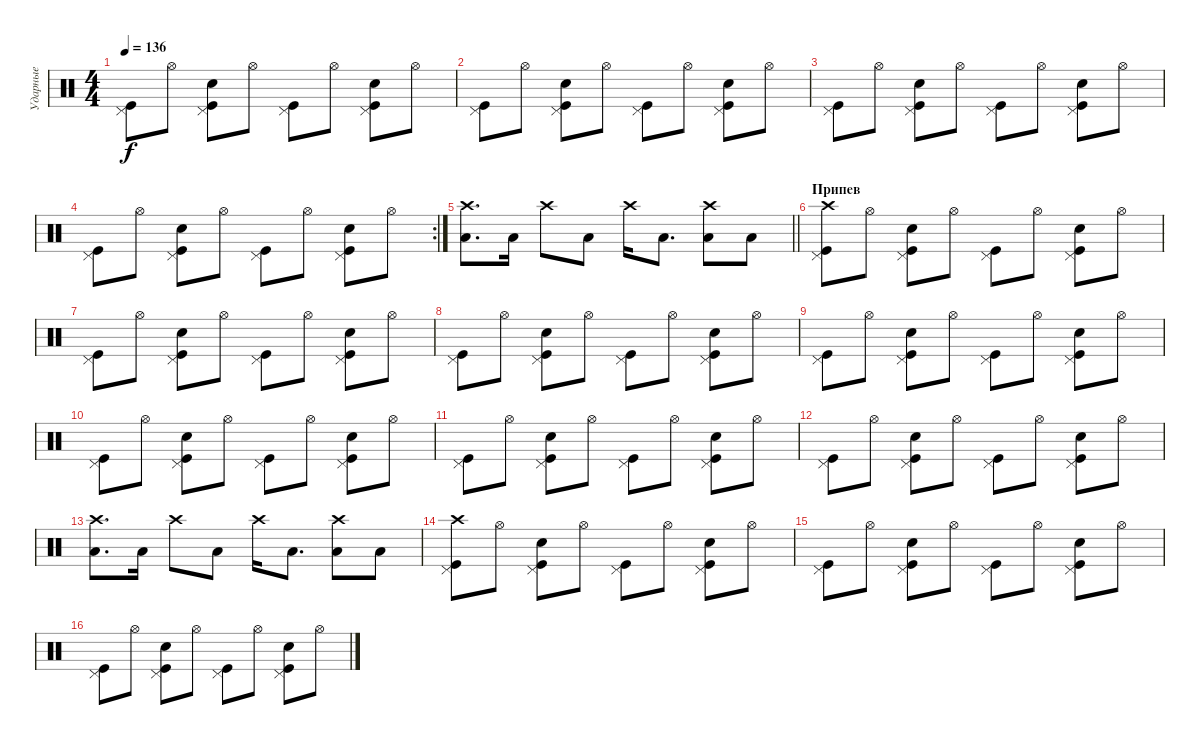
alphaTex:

\track ("Ударные" "Ударные") {instrument percussion}
\staff {score}
\articulation defaults
\ts (4 4)
\tempo 136
\clef neutral
\ks c
("Kick (hit)" "Pedal Hi-Hat (hit)").8{dy f} "Hi-Hat (open)".8 ("Kick (hit)" "Hand Clap (hit)" "Pedal Hi-Hat (hit)").8 "Hi-Hat (open)".8 ("Kick (hit)" "Pedal Hi-Hat (hit)").8 "Hi-Hat (open)".8 ("Kick (hit)" "Hand Clap (hit)" "Pedal Hi-Hat (hit)").8 "Hi-Hat (open)".8 |
("Kick (hit)" "Pedal Hi-Hat (hit)").8 "Hi-Hat (open)".8 ("Kick (hit)" "Hand Clap (hit)" "Pedal Hi-Hat (hit)").8 "Hi-Hat (open)".8 ("Kick (hit)" "Pedal Hi-Hat (hit)").8 "Hi-Hat (open)".8 ("Kick (hit)" "Hand Clap (hit)" "Pedal Hi-Hat (hit)").8 "Hi-Hat (open)".8 |
("Kick (hit)" "Pedal Hi-Hat (hit)").8 "Hi-Hat (open)".8 ("Kick (hit)" "Hand Clap (hit)" "Pedal Hi-Hat (hit)").8 "Hi-Hat (open)".8 ("Kick (hit)" "Pedal Hi-Hat (hit)").8 "Hi-Hat (open)".8 ("Kick (hit)" "Hand Clap (hit)" "Pedal Hi-Hat (hit)").8 "Hi-Hat (open)".8 |
\rc 2
("Kick (hit)" "Pedal Hi-Hat (hit)").8 "Hi-Hat (open)".8 ("Kick (hit)" "Hand Clap (hit)" "Pedal Hi-Hat (hit)").8 "Hi-Hat (open)".8 ("Kick (hit)" "Pedal Hi-Hat (hit)").8 "Hi-Hat (open)".8 ("Kick (hit)" "Hand Clap (hit)" "Pedal Hi-Hat (hit)").8 "Hi-Hat (open)".8 |
\barLineRight lightlight
("Low Tom (hit)" "Crash high (hit)").8{d} "Low Tom (hit)".16 "Crash high (hit)".8 "Low Tom (hit)".8 "Crash high (hit)".16 "Low Tom (hit)".8{d} ("Low Tom (hit)" "Crash high (hit)").8 "Low Tom (hit)".8 |
\section ("" "Припев")
("Kick (hit)" "Crash high (hit)" "Pedal Hi-Hat (hit)").8 "Hi-Hat (open)".8 ("Kick (hit)" "Hand Clap (hit)" "Pedal Hi-Hat (hit)").8 "Hi-Hat (open)".8 ("Kick (hit)" "Pedal Hi-Hat (hit)").8 "Hi-Hat (open)".8 ("Kick (hit)" "Hand Clap (hit)" "Pedal Hi-Hat (hit)").8 "Hi-Hat (open)".8 |
("Kick (hit)" "Pedal Hi-Hat (hit)").8 "Hi-Hat (open)".8 ("Kick (hit)" "Hand Clap (hit)" "Pedal Hi-Hat (hit)").8 "Hi-Hat (open)".8 ("Kick (hit)" "Pedal Hi-Hat (hit)").8 "Hi-Hat (open)".8 ("Kick (hit)" "Hand Clap (hit)" "Pedal Hi-Hat (hit)").8 "Hi-Hat (open)".8 |
("Kick (hit)" "Pedal Hi-Hat (hit)").8 "Hi-Hat (open)".8 ("Kick (hit)" "Hand Clap (hit)" "Pedal Hi-Hat (hit)").8 "Hi-Hat (open)".8 ("Kick (hit)" "Pedal Hi-Hat (hit)").8 "Hi-Hat (open)".8 ("Kick (hit)" "Hand Clap (hit)" "Pedal Hi-Hat (hit)").8 "Hi-Hat (open)".8 |
("Kick (hit)" "Pedal Hi-Hat (hit)").8 "Hi-Hat (open)".8 ("Kick (hit)" "Hand Clap (hit)" "Pedal Hi-Hat (hit)").8 "Hi-Hat (open)".8 ("Kick (hit)" "Pedal Hi-Hat (hit)").8 "Hi-Hat (open)".8 ("Kick (hit)" "Hand Clap (hit)" "Pedal Hi-Hat (hit)").8 "Hi-Hat (open)".8 |
("Kick (hit)" "Pedal Hi-Hat (hit)").8 "Hi-Hat (open)".8 ("Kick (hit)" "Hand Clap (hit)" "Pedal Hi-Hat (hit)").8 "Hi-Hat (open)".8 ("Kick (hit)" "Pedal Hi-Hat (hit)").8 "Hi-Hat (open)".8 ("Kick (hit)" "Hand Clap (hit)" "Pedal Hi-Hat (hit)").8 "Hi-Hat (open)".8 |
("Kick (hit)" "Pedal Hi-Hat (hit)").8 "Hi-Hat (open)".8 ("Kick (hit)" "Hand Clap (hit)" "Pedal Hi-Hat (hit)").8 "Hi-Hat (open)".8 ("Kick (hit)" "Pedal Hi-Hat (hit)").8 "Hi-Hat (open)".8 ("Kick (hit)" "Hand Clap (hit)" "Pedal Hi-Hat (hit)").8 "Hi-Hat (open)".8 |
("Kick (hit)" "Pedal Hi-Hat (hit)").8 "Hi-Hat (open)".8 ("Kick (hit)" "Hand Clap (hit)" "Pedal Hi-Hat (hit)").8 "Hi-Hat (open)".8 ("Kick (hit)" "Pedal Hi-Hat (hit)").8 "Hi-Hat (open)".8 ("Kick (hit)" "Hand Clap (hit)" "Pedal Hi-Hat (hit)").8 "Hi-Hat (open)".8 |
("Low Tom (hit)" "Crash high (hit)").8{d} "Low Tom (hit)".16 "Crash high (hit)".8 "Low Tom (hit)".8 "Crash high (hit)".16 "Low Tom (hit)".8{d} ("Low Tom (hit)" "Crash high (hit)").8 "Low Tom (hit)".8 |
("Kick (hit)" "Crash high (hit)" "Pedal Hi-Hat (hit)").8 "Hi-Hat (open)".8 ("Kick (hit)" "Hand Clap (hit)" "Pedal Hi-Hat (hit)").8 "Hi-Hat (open)".8 ("Kick (hit)" "Pedal Hi-Hat (hit)").8 "Hi-Hat (open)".8 ("Kick (hit)" "Hand Clap (hit)" "Pedal Hi-Hat (hit)").8 "Hi-Hat (open)".8 |
("Kick (hit)" "Pedal Hi-Hat (hit)").8 "Hi-Hat (open)".8 ("Kick (hit)" "Hand Clap (hit)" "Pedal Hi-Hat (hit)").8 "Hi-Hat (open)".8 ("Kick (hit)" "Pedal Hi-Hat (hit)").8 "Hi-Hat (open)".8 ("Kick (hit)" "Hand Clap (hit)" "Pedal Hi-Hat (hit)").8 "Hi-Hat (open)".8 |
("Kick (hit)" "Pedal Hi-Hat (hit)").8 "Hi-Hat (open)".8 ("Kick (hit)" "Hand Clap (hit)" "Pedal Hi-Hat (hit)").8 "Hi-Hat (open)".8 ("Kick (hit)" "Pedal Hi-Hat (hit)").8 "Hi-Hat (open)".8 ("Kick (hit)" "Hand Clap (hit)" "Pedal Hi-Hat (hit)").8 "Hi-Hat (open)".8
